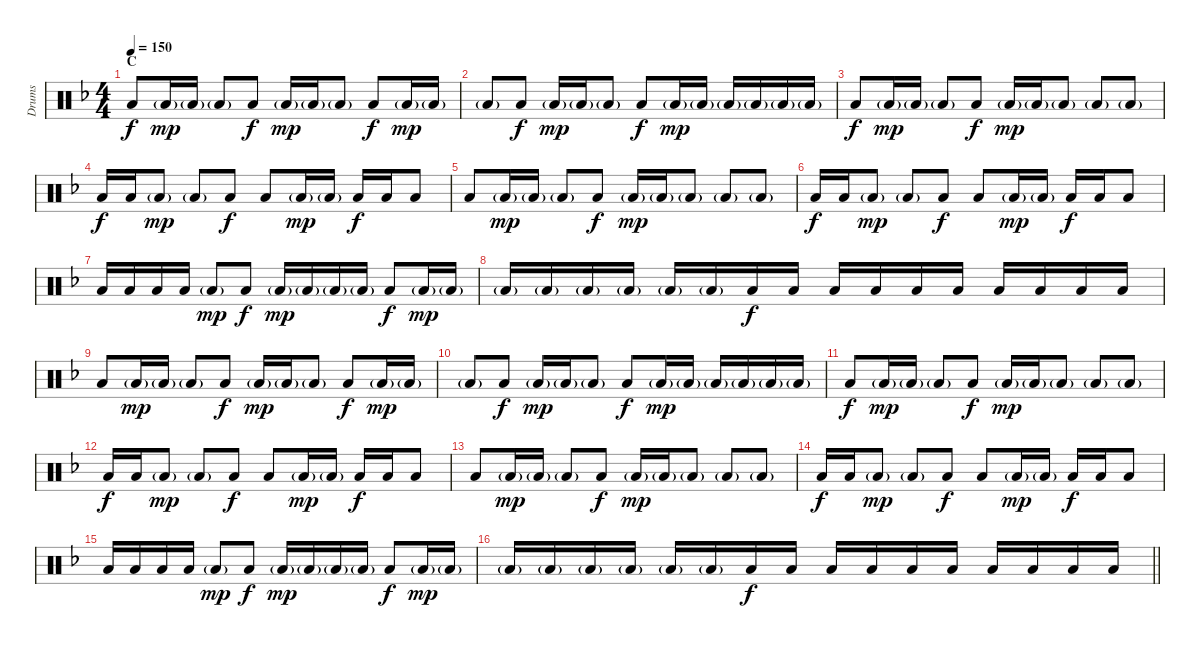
\track ("Drums" "Drums") {instrument percussion}
\staff {score}
\articulation defaults
\ts (4 4)
\section ("" "C")
\tempo 150
\clef neutral
\ks f "Low Tom (hit)".8{dy f} "Low Tom (hit)"{g}.16{dy mp} "Low Tom (hit)"{g}.16 "Low Tom (hit)"{g}.8 "Low Tom (hit)".8{dy f} "Low Tom (hit)"{g}.16{dy mp} "Low Tom (hit)"{g}.16 "Low Tom (hit)"{g}.8 "Low Tom (hit)".8{dy f} "Low Tom (hit)"{g}.16{dy mp} "Low Tom (hit)"{g}.16
|
"Low Tom (hit)"{g}.8 "Low Tom (hit)".8{dy f} "Low Tom (hit)"{g}.16{dy mp} "Low Tom (hit)"{g}.16 "Low Tom (hit)"{g}.8 "Low Tom (hit)".8{dy f} "Low Tom (hit)"{g}.16{dy mp} "Low Tom (hit)"{g}.16 "Low Tom (hit)"{g}.16 "Low Tom (hit)"{g}.16 "Low Tom (hit)"{g}.16 "Low Tom (hit)"{g}.16 |
"Low Tom (hit)".8{dy f} "Low Tom (hit)"{g}.16{dy mp} "Low Tom (hit)"{g}.16 "Low Tom (hit)"{g}.8 "Low Tom (hit)".8{dy f} "Low Tom (hit)"{g}.16{dy mp} "Low Tom (hit)"{g}.16 "Low Tom (hit)"{g}.8 "Low Tom (hit)"{g}.8 "Low Tom (hit)"{g}.8 |
"Low Tom (hit)".16{dy f} "Low Tom (hit)".16 "Low Tom (hit)"{g}.8{dy mp} "Low Tom (hit)"{g}.8 "Low Tom (hit)".8{dy f} "Low Tom (hit)".8 "Low Tom (hit)"{g}.16{dy mp} "Low Tom (hit)"{g}.16 "Low Tom (hit)".16{dy f} "Low Tom (hit)".16 "Low Tom (hit)".8 |
"Low Tom (hit)".8 "Low Tom (hit)"{g}.16{dy mp} "Low Tom (hit)"{g}.16 "Low Tom (hit)"{g}.8 "Low Tom (hit)".8{dy f} "Low Tom (hit)"{g}.16{dy mp} "Low Tom (hit)"{g}.16 "Low Tom (hit)"{g}.8 "Low Tom (hit)"{g}.8 "Low Tom (hit)"{g}.8 |
"Low Tom (hit)".16{dy f} "Low Tom (hit)".16 "Low Tom (hit)"{g}.8{dy mp} "Low Tom (hit)"{g}.8 "Low Tom (hit)".8{dy f} "Low Tom (hit)".8 "Low Tom (hit)"{g}.16{dy mp} "Low Tom (hit)"{g}.16 "Low Tom (hit)".16{dy f} "Low Tom (hit)".16 "Low Tom (hit)".8 |
"Low Tom (hit)".16 "Low Tom (hit)".16 "Low Tom (hit)".16 "Low Tom (hit)".16 "Low Tom (hit)"{g}.8{dy mp} "Low Tom (hit)".8{dy f} "Low Tom (hit)"{g}.16{dy mp} "Low Tom (hit)"{g}.16 "Low Tom (hit)"{g}.16 "Low Tom (hit)"{g}.16 "Low Tom (hit)".8{dy f} "Low Tom (hit)"{g}.16{dy mp} "Low Tom (hit)"{g}.16 |
"Low Tom (hit)"{g}.16 "Low Tom (hit)"{g}.16 "Low Tom (hit)"{g}.16 "Low Tom (hit)"{g}.16 "Low Tom (hit)"{g}.16 "Low Tom (hit)"{g}.16 "Low Tom (hit)".16{dy f} "Low Tom (hit)".16 "Low Tom (hit)".16 "Low Tom (hit)".16 "Low Tom (hit)".16 "Low Tom (hit)".16 "Low Tom (hit)".16 "Low Tom (hit)".16 "Low Tom (hit)".16 "Low Tom (hit)".16 |
"Low Tom (hit)".8 "Low Tom (hit)"{g}.16{dy mp} "Low Tom (hit)"{g}.16 "Low Tom (hit)"{g}.8 "Low Tom (hit)".8{dy f} "Low Tom (hit)"{g}.16{dy mp} "Low Tom (hit)"{g}.16 "Low Tom (hit)"{g}.8 "Low Tom (hit)".8{dy f} "Low Tom (hit)"{g}.16{dy mp} "Low Tom (hit)"{g}.16 |
"Low Tom (hit)"{g}.8 "Low Tom (hit)".8{dy f} "Low Tom (hit)"{g}.16{dy mp} "Low Tom (hit)"{g}.16 "Low Tom (hit)"{g}.8 "Low Tom (hit)".8{dy f} "Low Tom (hit)"{g}.16{dy mp} "Low Tom (hit)"{g}.16 "Low Tom (hit)"{g}.16 "Low Tom (hit)"{g}.16 "Low Tom (hit)"{g}.16 "Low Tom (hit)"{g}.16 |
"Low Tom (hit)".8{dy f} "Low Tom (hit)"{g}.16{dy mp} "Low Tom (hit)"{g}.16 "Low Tom (hit)"{g}.8 "Low Tom (hit)".8{dy f} "Low Tom (hit)"{g}.16{dy mp} "Low Tom (hit)"{g}.16 "Low Tom (hit)"{g}.8 "Low Tom (hit)"{g}.8 "Low Tom (hit)"{g}.8 |
"Low Tom (hit)".16{dy f} "Low Tom (hit)".16 "Low Tom (hit)"{g}.8{dy mp} "Low Tom (hit)"{g}.8 "Low Tom (hit)".8{dy f} "Low Tom (hit)".8 "Low Tom (hit)"{g}.16{dy mp} "Low Tom (hit)"{g}.16 "Low Tom (hit)".16{dy f} "Low Tom (hit)".16 "Low Tom (hit)".8 |
"Low Tom (hit)".8 "Low Tom (hit)"{g}.16{dy mp} "Low Tom (hit)"{g}.16 "Low Tom (hit)"{g}.8 "Low Tom (hit)".8{dy f} "Low Tom (hit)"{g}.16{dy mp} "Low Tom (hit)"{g}.16 "Low Tom (hit)"{g}.8 "Low Tom (hit)"{g}.8 "Low Tom (hit)"{g}.8 |
"Low Tom (hit)".16{dy f} "Low Tom (hit)".16 "Low Tom (hit)"{g}.8{dy mp} "Low Tom (hit)"{g}.8 "Low Tom (hit)".8{dy f} "Low Tom (hit)".8 "Low Tom (hit)"{g}.16{dy mp} "Low Tom (hit)"{g}.16 "Low Tom (hit)".16{dy f} "Low Tom (hit)".16 "Low Tom (hit)".8 |
"Low Tom (hit)".16 "Low Tom (hit)".16 "Low Tom (hit)".16 "Low Tom (hit)".16 "Low Tom (hit)"{g}.8{dy mp} "Low Tom (hit)".8{dy f} "Low Tom (hit)"{g}.16{dy mp} "Low Tom (hit)"{g}.16 "Low Tom (hit)"{g}.16 "Low Tom (hit)"{g}.16 "Low Tom (hit)".8{dy f} "Low Tom (hit)"{g}.16{dy mp} "Low Tom (hit)"{g}.16 |
\barLineRight lightlight "Low Tom (hit)"{g}.16 "Low Tom (hit)"{g}.16 "Low Tom (hit)"{g}.16 "Low Tom (hit)"{g}.16 "Low Tom (hit)"{g}.16 "Low Tom (hit)"{g}.16 "Low Tom (hit)".16{dy f} "Low Tom (hit)".16 "Low Tom (hit)".16 "Low Tom (hit)".16 "Low Tom (hit)".16 "Low Tom (hit)".16 "Low Tom (hit)".16 "Low Tom (hit)".16 "Low Tom (hit)".16 "Low Tom (hit)".16
